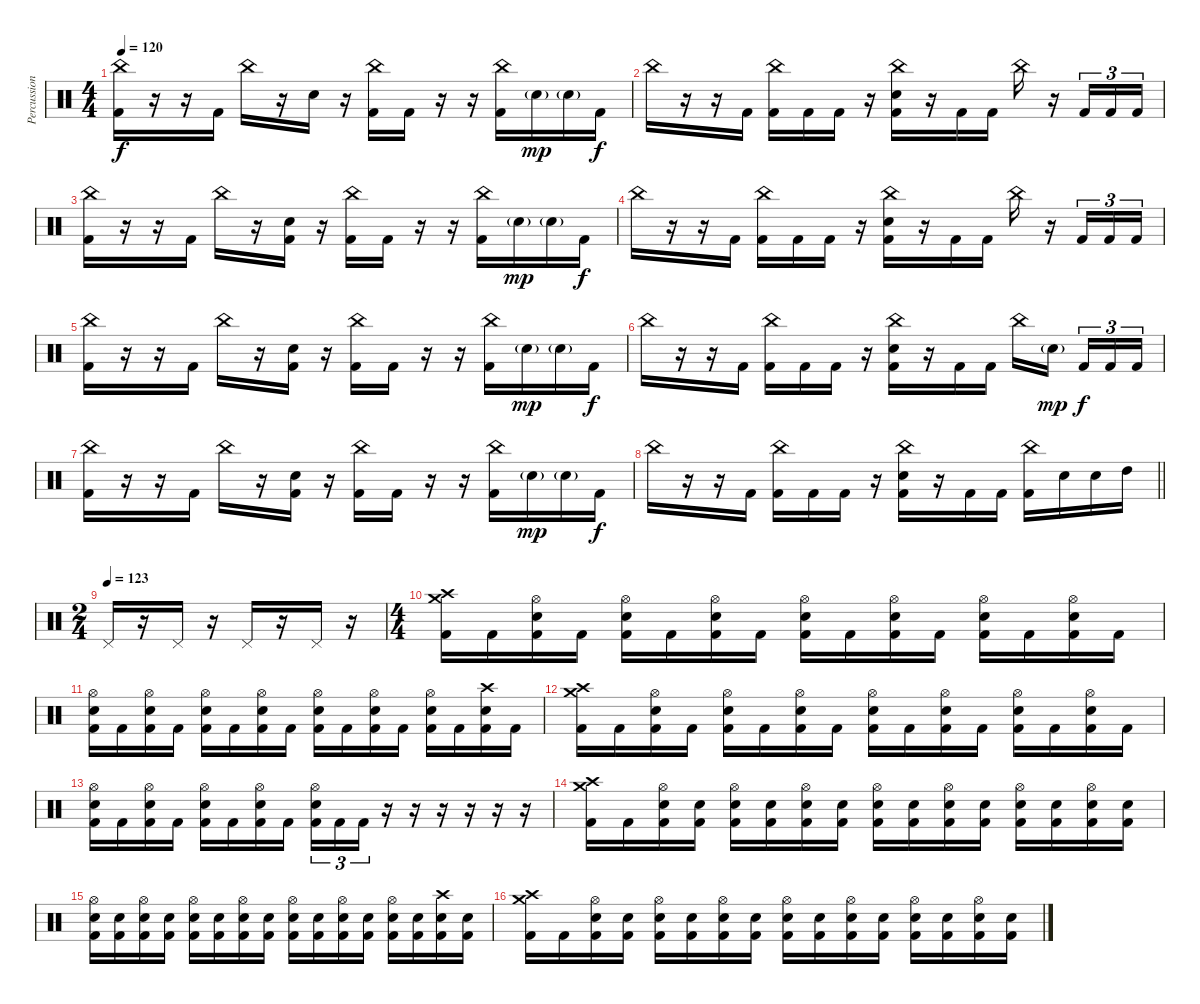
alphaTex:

\track ("Percussion" "Percussion") {instrument percussion}
\staff {score}
\articulation defaults
\ts (4 4)
\tempo 120
\clef neutral
\ks c
("China (hit)" "Kick (hit) 2").16{dy f} r.16 r.16 "Kick (hit) 2".16 "China (hit)".16 r.16 "Electric Snare (hit)".16 r.16 ("China (hit)" "Kick (hit) 2").16 "Kick (hit) 2".16 r.16 r.16 ("China (hit)" "Kick (hit) 2").16 "Electric Snare (hit)"{g}.16{dy mp} "Electric Snare (hit)"{g}.16 "Kick (hit) 2".16{dy f} |
"China (hit)".16 r.16 r.16 "Kick (hit) 2".16 ("China (hit)" "Kick (hit) 2").16 "Kick (hit) 2".16 "Kick (hit) 2".16 r.16 ("China (hit)" "Electric Snare (hit)" "Kick (hit) 2").16 r.16 "Kick (hit) 2".16 "Kick (hit) 2".16 "China (hit)".16 r.16 "Kick (hit) 2".16{tu (3 2)} "Kick (hit) 2".16{tu (3 2)} "Kick (hit) 2".16{tu (3 2)} |
("China (hit)" "Kick (hit) 2").16 r.16 r.16 "Kick (hit) 2".16 "China (hit)".16 r.16 ("Electric Snare (hit)" "Kick (hit) 2").16 r.16 ("China (hit)" "Kick (hit) 2").16 "Kick (hit) 2".16 r.16 r.16 ("China (hit)" "Kick (hit) 2").16 "Electric Snare (hit)"{g}.16{dy mp} "Electric Snare (hit)"{g}.16 "Kick (hit) 2".16{dy f} |
"China (hit)".16 r.16 r.16 "Kick (hit) 2".16 ("China (hit)" "Kick (hit) 2").16 "Kick (hit) 2".16 "Kick (hit) 2".16 r.16 ("China (hit)" "Electric Snare (hit)" "Kick (hit) 2").16 r.16 "Kick (hit) 2".16 "Kick (hit) 2".16 "China (hit)".16 r.16 "Kick (hit) 2".16{tu (3 2)} "Kick (hit) 2".16{tu (3 2)} "Kick (hit) 2".16{tu (3 2)} |
("China (hit)" "Kick (hit) 2").16 r.16 r.16 "Kick (hit) 2".16 "China (hit)".16 r.16 ("Electric Snare (hit)" "Kick (hit) 2").16 r.16 ("China (hit)" "Kick (hit) 2").16 "Kick (hit) 2".16 r.16 r.16 ("China (hit)" "Kick (hit) 2").16 "Electric Snare (hit)"{g}.16{dy mp} "Electric Snare (hit)"{g}.16 "Kick (hit) 2".16{dy f} |
"China (hit)".16 r.16 r.16 "Kick (hit) 2".16 ("China (hit)" "Kick (hit) 2").16 "Kick (hit) 2".16 "Kick (hit) 2".16 r.16 ("China (hit)" "Electric Snare (hit)" "Kick (hit) 2").16 r.16 "Kick (hit) 2".16 "Kick (hit) 2".16 "China (hit)".16 "Electric Snare (hit)"{g}.16{dy mp beam splitsecondary} "Kick (hit) 2".16{tu (3 2) dy f} "Kick (hit) 2".16{tu (3 2)} "Kick (hit) 2".16{tu (3 2)} |
("China (hit)" "Kick (hit) 2").16 r.16 r.16 "Kick (hit) 2".16 "China (hit)".16 r.16 ("Electric Snare (hit)" "Kick (hit) 2").16 r.16 ("China (hit)" "Kick (hit) 2").16 "Kick (hit) 2".16 r.16 r.16 ("China (hit)" "Kick (hit) 2").16 "Electric Snare (hit)"{g}.16{dy mp} "Electric Snare (hit)"{g}.16 "Kick (hit) 2".16{dy f} |
\barLineRight lightlight "China (hit)".16
r.16 r.16 "Kick (hit) 2".16 ("China (hit)" "Kick (hit) 2").16 "Kick (hit) 2".16 "Kick (hit) 2".16 r.16 ("China (hit)" "Electric Snare (hit)" "Kick (hit) 2").16 r.16 "Kick (hit) 2".16 "Kick (hit) 2".16 ("China (hit)" "Kick (hit) 2").16 "Electric Snare (hit)".16 "Electric Snare (hit)".16 "High Tom (hit)".16 |
\ts (2 4)
\tempo (123)
"Pedal Hi-Hat (hit)".16 r.16 "Pedal Hi-Hat (hit)".16 r.16 "Pedal Hi-Hat (hit)".16 r.16 "Pedal Hi-Hat (hit)".16 r.16 |
\ts (4 4)
("Crash high (hit)" "Crash medium (hit)" "Kick (hit) 2").16 "Kick (hit) 2".16 ("Hi-Hat (open)" "Electric Snare (hit)" "Kick (hit) 2").16 "Kick (hit) 2".16 ("Hi-Hat (open)" "Electric Snare (hit)" "Kick (hit) 2").16 "Kick (hit) 2".16 ("Hi-Hat (open)" "Electric Snare (hit)" "Kick (hit) 2").16 "Kick (hit) 2".16 ("Hi-Hat (open)" "Electric Snare (hit)" "Kick (hit) 2").16 "Kick (hit) 2".16 ("Hi-Hat (open)" "Electric Snare (hit)" "Kick (hit) 2").16 "Kick (hit) 2".16 ("Hi-Hat (open)" "Electric Snare (hit)" "Kick (hit) 2").16 "Kick (hit) 2".16 ("Hi-Hat (open)" "Electric Snare (hit)" "Kick (hit) 2").16 "Kick (hit) 2".16 |
("Hi-Hat (open)" "Electric Snare (hit)" "Kick (hit) 2").16 "Kick (hit) 2".16 ("Hi-Hat (open)" "Electric Snare (hit)" "Kick (hit) 2").16 "Kick (hit) 2".16 ("Hi-Hat (open)" "Electric Snare (hit)" "Kick (hit) 2").16 "Kick (hit) 2".16 ("Hi-Hat (open)" "Electric Snare (hit)" "Kick (hit) 2").16 "Kick (hit) 2".16 ("Hi-Hat (open)" "Electric Snare (hit)" "Kick (hit) 2").16 "Kick (hit) 2".16 ("Hi-Hat (open)" "Electric Snare (hit)" "Kick (hit) 2").16 "Kick (hit) 2".16 ("Hi-Hat (open)" "Electric Snare (hit)" "Kick (hit) 2").16 "Kick (hit) 2".16 ("Crash high (hit)" "Electric Snare (hit)" "Kick (hit) 2").16 "Kick (hit) 2".16 |
("Crash high (hit)" "Crash medium (hit)" "Kick (hit) 2").16 "Kick (hit) 2".16 ("Hi-Hat (open)" "Electric Snare (hit)" "Kick (hit) 2").16 "Kick (hit) 2".16 ("Hi-Hat (open)" "Electric Snare (hit)" "Kick (hit) 2").16 "Kick (hit) 2".16 ("Hi-Hat (open)" "Electric Snare (hit)" "Kick (hit) 2").16 "Kick (hit) 2".16 ("Hi-Hat (open)" "Electric Snare (hit)" "Kick (hit) 2").16 "Kick (hit) 2".16 ("Hi-Hat (open)" "Electric Snare (hit)" "Kick (hit) 2").16 "Kick (hit) 2".16 ("Hi-Hat (open)" "Electric Snare (hit)" "Kick (hit) 2").16 "Kick (hit) 2".16 ("Hi-Hat (open)" "Electric Snare (hit)" "Kick (hit) 2").16 "Kick (hit) 2".16 |
("Hi-Hat (open)" "Electric Snare (hit)" "Kick (hit) 2").16 "Kick (hit) 2".16 ("Hi-Hat (open)" "Electric Snare (hit)" "Kick (hit) 2").16 "Kick (hit) 2".16 ("Hi-Hat (open)" "Electric Snare (hit)" "Kick (hit) 2").16 "Kick (hit) 2".16 ("Hi-Hat (open)" "Electric Snare (hit)" "Kick (hit) 2").16 "Kick (hit) 2".16 ("Hi-Hat (open)" "Electric Snare (hit)" "Kick (hit) 2").16{tu (3 2)} "Kick (hit) 2".16{tu (3 2)} "Kick (hit) 2".16{tu (3 2)} r.16 r.16 r.16 r.16 r.16 r.16 |
("Crash high (hit)" "Crash medium (hit)" "Kick (hit) 2").16 "Kick (hit) 2".16 ("Hi-Hat (open)" "Electric Snare (hit)" "Kick (hit) 2").16 ("Electric Snare (hit)" "Kick (hit) 2").16 ("Hi-Hat (open)" "Electric Snare (hit)" "Kick (hit) 2").16 ("Electric Snare (hit)" "Kick (hit) 2").16 ("Hi-Hat (open)" "Electric Snare (hit)" "Kick (hit) 2").16 ("Electric Snare (hit)" "Kick (hit) 2").16 ("Hi-Hat (open)" "Electric Snare (hit)" "Kick (hit) 2").16 ("Electric Snare (hit)" "Kick (hit) 2").16 ("Hi-Hat (open)" "Electric Snare (hit)" "Kick (hit) 2").16 ("Electric Snare (hit)" "Kick (hit) 2").16 ("Hi-Hat (open)" "Electric Snare (hit)" "Kick (hit) 2").16 ("Electric Snare (hit)" "Kick (hit) 2").16 ("Hi-Hat (open)" "Electric Snare (hit)" "Kick (hit) 2").16 ("Electric Snare (hit)" "Kick (hit) 2").16 |
("Hi-Hat (open)" "Electric Snare (hit)" "Kick (hit) 2").16 ("Electric Snare (hit)" "Kick (hit) 2").16 ("Hi-Hat (open)" "Electric Snare (hit)" "Kick (hit) 2").16 ("Electric Snare (hit)" "Kick (hit) 2").16 ("Hi-Hat (open)" "Electric Snare (hit)" "Kick (hit) 2").16 ("Electric Snare (hit)" "Kick (hit) 2").16 ("Hi-Hat (open)" "Electric Snare (hit)" "Kick (hit) 2").16 ("Electric Snare (hit)" "Kick (hit) 2").16 ("Hi-Hat (open)" "Electric Snare (hit)" "Kick (hit) 2").16 ("Electric Snare (hit)" "Kick (hit) 2").16 ("Hi-Hat (open)" "Electric Snare (hit)" "Kick (hit) 2").16 ("Electric Snare (hit)" "Kick (hit) 2").16 ("Hi-Hat (open)" "Electric Snare (hit)" "Kick (hit) 2").16 ("Electric Snare (hit)" "Kick (hit) 2").16 ("Crash high (hit)" "Electric Snare (hit)" "Kick (hit) 2").16 ("Electric Snare (hit)" "Kick (hit) 2").16 |
("Crash high (hit)" "Crash medium (hit)" "Kick (hit) 2").16 "Kick (hit) 2".16 ("Hi-Hat (open)" "Electric Snare (hit)" "Kick (hit) 2").16 ("Electric Snare (hit)" "Kick (hit) 2").16 ("Hi-Hat (open)" "Electric Snare (hit)" "Kick (hit) 2").16 ("Electric Snare (hit)" "Kick (hit) 2").16 ("Hi-Hat (open)" "Electric Snare (hit)" "Kick (hit) 2").16 ("Electric Snare (hit)" "Kick (hit) 2").16 ("Hi-Hat (open)" "Electric Snare (hit)" "Kick (hit) 2").16 ("Electric Snare (hit)" "Kick (hit) 2").16 ("Hi-Hat (open)" "Electric Snare (hit)" "Kick (hit) 2").16 ("Electric Snare (hit)" "Kick (hit) 2").16 ("Hi-Hat (open)" "Electric Snare (hit)" "Kick (hit) 2").16 ("Electric Snare (hit)" "Kick (hit) 2").16 ("Hi-Hat (open)" "Electric Snare (hit)" "Kick (hit) 2").16 ("Electric Snare (hit)" "Kick (hit) 2").16
